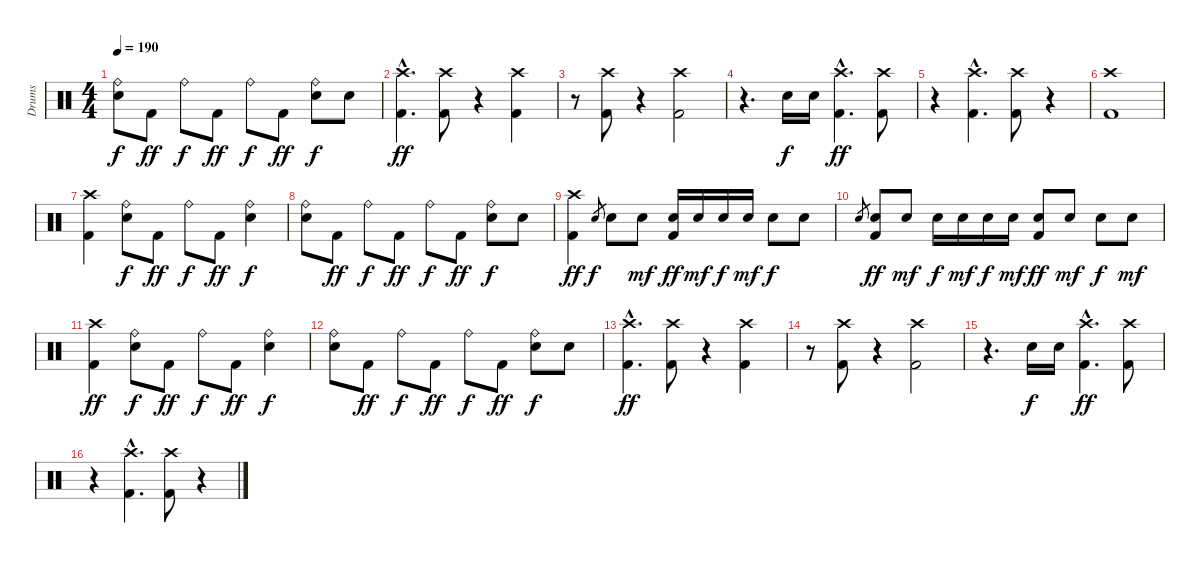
\track ("Drums" "Drums") {instrument percussion}
\staff {score}
\articulation defaults
\ts (4 4)
\tempo 190
\clef neutral
\ks c
("Ride (bell)" "Snare (hit) 2").8{dy f} "Kick (hit) 2".8{dy ff} "Ride (bell)".8{dy f} "Kick (hit) 2".8{dy ff} "Ride (bell)".8{dy f} "Kick (hit) 2".8{dy ff} ("Ride (bell)" "Snare (hit) 2").8{dy f} "Snare (hit) 2".8 |
("Crash high (hit)"{hac} "Kick (hit) 2"{hac}).4{d dy ff} ("Crash high (hit)" "Kick (hit) 2").8 r.4 ("Crash high (hit)" "Kick (hit) 2").4 |
r.8 ("Crash high (hit)" "Kick (hit) 2").8 r.4 ("Crash high (hit)" "Kick (hit) 2").2 |
r.4{d} "Snare (hit) 2".16{dy f} "Snare (hit) 2".16 ("Crash high (hit)"{hac} "Kick (hit) 2"{hac}).4{d dy ff} ("Crash high (hit)" "Kick (hit) 2").8 |
r.4 ("Crash high (hit)"{hac} "Kick (hit) 2"{hac}).4{d} ("Crash high (hit)" "Kick (hit) 2").8 r.4 |
("Crash high (hit)" "Kick (hit) 2").1 |
("Crash high (hit)" "Kick (hit) 2").4 ("Ride (bell)" "Snare (hit) 2").8{dy f} "Kick (hit) 2".8{dy ff} "Ride (bell)".8{dy f} "Kick (hit) 2".8{dy ff} ("Ride (bell)" "Snare (hit) 2").4{dy f} |
("Ride (bell)" "Snare (hit) 2").8 "Kick (hit) 2".8{dy ff} "Ride (bell)".8{dy f} "Kick (hit) 2".8{dy ff} "Ride (bell)".8{dy f} "Kick (hit) 2".8{dy ff} ("Ride (bell)" "Snare (hit) 2").8{dy f} "Snare (hit) 2".8 |
("Crash high (hit)" "Kick (hit) 2").4{dy ff} "Snare (hit) 2".8{gr dy f} "Snare (hit) 2".8 "Snare (hit) 2".8{dy mf} ("Snare (hit) 2" "Kick (hit) 2").16{dy ff} "Snare (hit) 2".16{dy mf} "Snare (hit) 2".16{dy f} "Snare (hit) 2".16{dy mf} "Snare (hit) 2".8{dy f} "Snare (hit) 2".8 |
"Snare (hit) 2".8{gr} ("Snare (hit) 2" "Kick (hit) 2").8{dy ff} "Snare (hit) 2".8{dy mf} "Snare (hit) 2".16{dy f} "Snare (hit) 2".16{dy mf} "Snare (hit) 2".16{dy f} "Snare (hit) 2".16{dy mf} ("Snare (hit) 2" "Kick (hit) 2").8{dy ff} "Snare (hit) 2".8{dy mf} "Snare (hit) 2".8{dy f} "Snare (hit) 2".8{dy mf} |
("Crash high (hit)" "Kick (hit) 2").4{dy ff} ("Ride (bell)" "Snare (hit) 2").8{dy f} "Kick (hit) 2".8{dy ff} "Ride (bell)".8{dy f} "Kick (hit) 2".8{dy ff} ("Ride (bell)" "Snare (hit) 2").4{dy f} |
("Ride (bell)" "Snare (hit) 2").8 "Kick (hit) 2".8{dy ff} "Ride (bell)".8{dy f} "Kick (hit) 2".8{dy ff} "Ride (bell)".8{dy f} "Kick (hit) 2".8{dy ff} ("Ride (bell)" "Snare (hit) 2").8{dy f} "Snare (hit) 2".8 |
("Crash high (hit)"{hac} "Kick (hit) 2"{hac}).4{d dy ff} ("Crash high (hit)" "Kick (hit) 2").8 r.4 ("Crash high (hit)" "Kick (hit) 2").4 |
r.8 ("Crash high (hit)" "Kick (hit) 2").8 r.4 ("Crash high (hit)" "Kick (hit) 2").2 |
r.4{d} "Snare (hit) 2".16{dy f} "Snare (hit) 2".16 ("Crash high (hit)"{hac} "Kick (hit) 2"{hac}).4{d dy ff} ("Crash high (hit)" "Kick (hit) 2").8 |
r.4 ("Crash high (hit)"{hac} "Kick (hit) 2"{hac}).4{d} ("Crash high (hit)" "Kick (hit) 2").8 r.4
